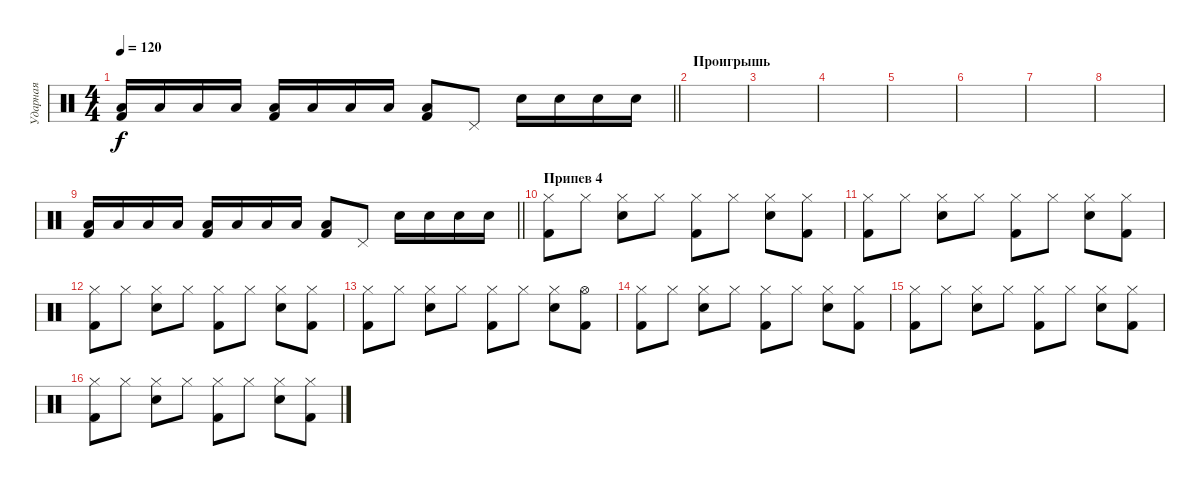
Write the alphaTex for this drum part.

\track ("Ударная" "Ударная") {instrument percussion}
\staff {score}
\articulation defaults
\ts (4 4)
\tempo 120
\clef neutral
\barLineRight lightlight
\ks c
("Low Tom (hit)" "Kick (hit) 2").16{dy f} "Low Tom (hit)".16 "Low Tom (hit)".16 "Low Tom (hit)".16 ("Low Tom (hit)" "Kick (hit) 2").16 "Low Tom (hit)".16 "Low Tom (hit)".16 "Low Tom (hit)".16 ("Low Tom (hit)" "Kick (hit) 2").8 "Pedal Hi-Hat (hit)".8 "Snare (hit) 2".16 "Snare (hit) 2".16 "Snare (hit) 2".16 "Snare (hit) 2".16 |
\section ("" "Проигрышь")
|
|
|
|
|
|
|
\barLineRight lightlight
("Low Tom (hit)" "Kick (hit) 2").16 "Low Tom (hit)".16 "Low Tom (hit)".16 "Low Tom (hit)".16 ("Low Tom (hit)" "Kick (hit) 2").16 "Low Tom (hit)".16 "Low Tom (hit)".16 "Low Tom (hit)".16 ("Low Tom (hit)" "Kick (hit) 2").8 "Pedal Hi-Hat (hit)".8 "Snare (hit) 2".16 "Snare (hit) 2".16 "Snare (hit) 2".16 "Snare (hit) 2".16 |
\section ("" "Припев 4")
("Hi-Hat (closed)" "Kick (hit) 2").8 "Hi-Hat (closed)".8 ("Hi-Hat (closed)" "Electric Snare (hit)").8 "Hi-Hat (closed)".8 ("Hi-Hat (closed)" "Kick (hit) 2").8 "Hi-Hat (closed)".8 ("Hi-Hat (closed)" "Electric Snare (hit)").8 ("Hi-Hat (closed)" "Kick (hit) 2").8 |
("Hi-Hat (closed)" "Kick (hit) 2").8 "Hi-Hat (closed)".8 ("Hi-Hat (closed)" "Electric Snare (hit)").8 "Hi-Hat (closed)".8 ("Hi-Hat (closed)" "Kick (hit) 2").8 "Hi-Hat (closed)".8 ("Hi-Hat (closed)" "Electric Snare (hit)").8 ("Hi-Hat (closed)" "Kick (hit) 2").8 |
("Hi-Hat (closed)" "Kick (hit) 2").8 "Hi-Hat (closed)".8 ("Hi-Hat (closed)" "Electric Snare (hit)").8 "Hi-Hat (closed)".8 ("Hi-Hat (closed)" "Kick (hit) 2").8 "Hi-Hat (closed)".8 ("Hi-Hat (closed)" "Electric Snare (hit)").8 ("Hi-Hat (closed)" "Kick (hit) 2").8 |
("Hi-Hat (closed)" "Kick (hit) 2").8 "Hi-Hat (closed)".8 ("Hi-Hat (closed)" "Electric Snare (hit)").8 "Hi-Hat (closed)".8 ("Hi-Hat (closed)" "Kick (hit) 2").8 "Hi-Hat (closed)".8 ("Hi-Hat (closed)" "Electric Snare (hit)").8 ("Hi-Hat (open)" "Kick (hit) 2").8 |
("Hi-Hat (closed)" "Kick (hit) 2").8 "Hi-Hat (closed)".8 ("Hi-Hat (closed)" "Electric Snare (hit)").8 "Hi-Hat (closed)".8 ("Hi-Hat (closed)" "Kick (hit) 2").8 "Hi-Hat (closed)".8 ("Hi-Hat (closed)" "Electric Snare (hit)").8 ("Hi-Hat (closed)" "Kick (hit) 2").8 |
("Hi-Hat (closed)" "Kick (hit) 2").8 "Hi-Hat (closed)".8 ("Hi-Hat (closed)" "Electric Snare (hit)").8 "Hi-Hat (closed)".8 ("Hi-Hat (closed)" "Kick (hit) 2").8 "Hi-Hat (closed)".8 ("Hi-Hat (closed)" "Electric Snare (hit)").8 ("Hi-Hat (closed)" "Kick (hit) 2").8 |
("Hi-Hat (closed)" "Kick (hit) 2").8 "Hi-Hat (closed)".8 ("Hi-Hat (closed)" "Electric Snare (hit)").8 "Hi-Hat (closed)".8 ("Hi-Hat (closed)" "Kick (hit) 2").8 "Hi-Hat (closed)".8 ("Hi-Hat (closed)" "Electric Snare (hit)").8 ("Hi-Hat (closed)" "Kick (hit) 2").8
